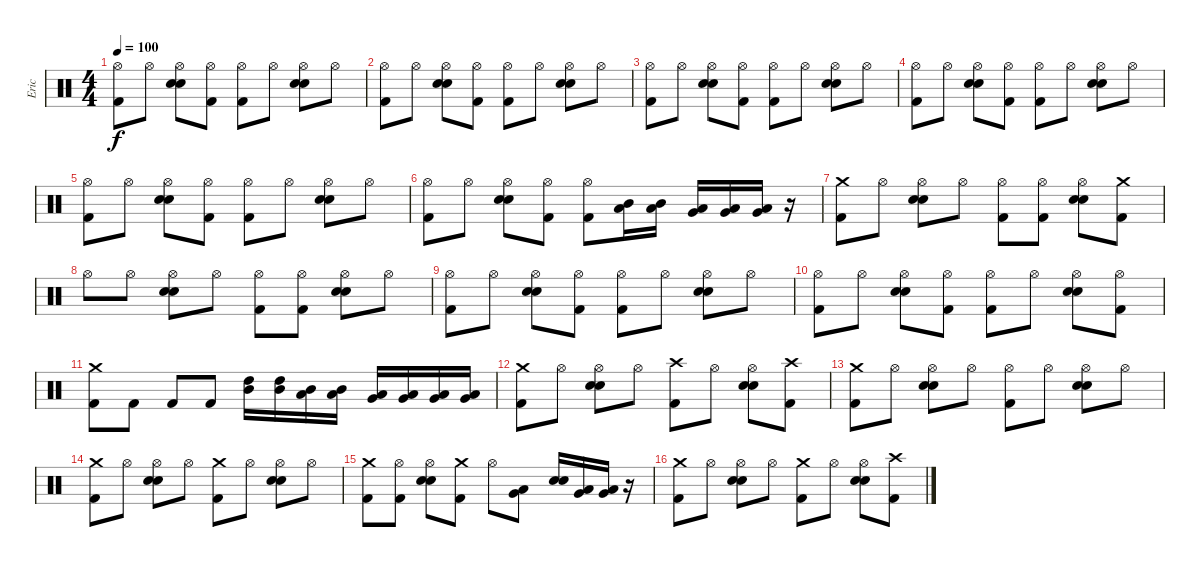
\track ("Eric" "Eric") {instrument percussion}
\staff {score}
\articulation defaults
\ts (4 4)
\tempo 100
\clef neutral
\ks c
("Hi-Hat (open)" "Kick (hit) 2").8{dy f} "Hi-Hat (open)".8 ("Hi-Hat (open)" "Electric Snare (hit)" "Snare (hit) 2").8 ("Hi-Hat (open)" "Kick (hit) 2").8 ("Hi-Hat (open)" "Kick (hit) 2").8 "Hi-Hat (open)".8 ("Hi-Hat (open)" "Electric Snare (hit)" "Snare (hit) 2").8 "Hi-Hat (open)".8 |
("Hi-Hat (open)" "Kick (hit) 2").8 "Hi-Hat (open)".8 ("Hi-Hat (open)" "Electric Snare (hit)" "Snare (hit) 2").8 ("Hi-Hat (open)" "Kick (hit) 2").8 ("Hi-Hat (open)" "Kick (hit) 2").8 "Hi-Hat (open)".8 ("Hi-Hat (open)" "Electric Snare (hit)" "Snare (hit) 2").8 "Hi-Hat (open)".8 |
("Hi-Hat (open)" "Kick (hit) 2").8 "Hi-Hat (open)".8 ("Hi-Hat (open)" "Electric Snare (hit)" "Snare (hit) 2").8 ("Hi-Hat (open)" "Kick (hit) 2").8 ("Hi-Hat (open)" "Kick (hit) 2").8 "Hi-Hat (open)".8 ("Hi-Hat (open)" "Electric Snare (hit)" "Snare (hit) 2").8 "Hi-Hat (open)".8 |
("Hi-Hat (open)" "Kick (hit) 2").8 "Hi-Hat (open)".8 ("Hi-Hat (open)" "Electric Snare (hit)" "Snare (hit) 2").8 ("Hi-Hat (open)" "Kick (hit) 2").8 ("Hi-Hat (open)" "Kick (hit) 2").8 "Hi-Hat (open)".8 ("Hi-Hat (open)" "Electric Snare (hit)" "Snare (hit) 2").8 "Hi-Hat (open)".8 |
("Hi-Hat (open)" "Kick (hit) 2").8 "Hi-Hat (open)".8 ("Hi-Hat (open)" "Electric Snare (hit)" "Snare (hit) 2").8 ("Hi-Hat (open)" "Kick (hit) 2").8 ("Hi-Hat (open)" "Kick (hit) 2").8 "Hi-Hat (open)".8 ("Hi-Hat (open)" "Electric Snare (hit)" "Snare (hit) 2").8 "Hi-Hat (open)".8 |
("Hi-Hat (open)" "Kick (hit) 2").8 "Hi-Hat (open)".8 ("Hi-Hat (open)" "Electric Snare (hit)" "Snare (hit) 2").8 ("Hi-Hat (open)" "Kick (hit) 2").8 ("Hi-Hat (open)" "Kick (hit) 2").8 ("Mid Tom (hit)" "Low Tom (hit)").16 ("Mid Tom (hit)" "Low Tom (hit)").16 ("Low Tom (hit)" "Very Low Tom (hit)").16 ("Low Tom (hit)" "Very Low Tom (hit)").16 ("Very Low Tom (hit)" "Low Floor Tom (hit)").16 r.16 |
("Crash medium (hit)" "Kick (hit) 2").8 "Hi-Hat (open)".8 ("Hi-Hat (open)" "Electric Snare (hit)" "Snare (hit) 2").8 "Hi-Hat (open)".8 ("Hi-Hat (open)" "Kick (hit) 2").8 ("Kick (hit) 2" "Hi-Hat (open)").8 ("Hi-Hat (open)" "Electric Snare (hit)" "Snare (hit) 2").8 ("Kick (hit) 2" "Crash medium (hit)").8 |
"Hi-Hat (open)".8 "Hi-Hat (open)".8 ("Hi-Hat (open)" "Electric Snare (hit)" "Snare (hit) 2").8 "Hi-Hat (open)".8 ("Hi-Hat (open)" "Kick (hit) 2").8 ("Kick (hit) 2" "Hi-Hat (open)").8 ("Hi-Hat (open)" "Electric Snare (hit)" "Snare (hit) 2").8 "Hi-Hat (open)".8 |
("Hi-Hat (open)" "Kick (hit) 2").8 "Hi-Hat (open)".8 ("Hi-Hat (open)" "Electric Snare (hit)" "Snare (hit) 2").8 ("Hi-Hat (open)" "Kick (hit) 2").8 ("Hi-Hat (open)" "Kick (hit) 2").8 "Hi-Hat (open)".8 ("Hi-Hat (open)" "Electric Snare (hit)" "Snare (hit) 2").8 "Hi-Hat (open)".8 |
("Hi-Hat (open)" "Kick (hit) 2").8 "Hi-Hat (open)".8 ("Hi-Hat (open)" "Electric Snare (hit)" "Snare (hit) 2").8 ("Hi-Hat (open)" "Kick (hit) 2").8 ("Hi-Hat (open)" "Kick (hit) 2").8 "Hi-Hat (open)".8 ("Hi-Hat (open)" "Electric Snare (hit)" "Snare (hit) 2").8 ("Kick (hit) 2" "Hi-Hat (open)").8 |
("Crash medium (hit)" "Kick (hit) 2").8 "Kick (hit) 2".8 "Kick (hit) 2".8 "Kick (hit) 2".8 ("Mid Tom (hit)" "High Tom (hit)").16 ("Mid Tom (hit)" "High Tom (hit)").16 ("Low Tom (hit)" "Mid Tom (hit)").16 ("Low Tom (hit)" "Mid Tom (hit)").16 ("Low Tom (hit)" "Very Low Tom (hit)").16 ("Low Tom (hit)" "Very Low Tom (hit)").16 ("Very Low Tom (hit)" "Low Floor Tom (hit)").16 ("Very Low Tom (hit)" "Low Floor Tom (hit)").16 |
("Crash medium (hit)" "Kick (hit) 2").8 "Hi-Hat (open)".8 ("Hi-Hat (open)" "Electric Snare (hit)" "Snare (hit) 2").8 "Hi-Hat (open)".8 ("Crash high (hit)" "Kick (hit) 2").8 "Hi-Hat (open)".8 ("Hi-Hat (open)" "Electric Snare (hit)" "Snare (hit) 2").8 ("Kick (hit) 2" "Crash high (hit)").8 |
("Crash medium (hit)" "Kick (hit) 2").8 "Hi-Hat (open)".8 ("Hi-Hat (open)" "Electric Snare (hit)" "Snare (hit) 2").8 "Hi-Hat (open)".8 ("Hi-Hat (open)" "Kick (hit) 2").8 "Hi-Hat (open)".8 ("Hi-Hat (open)" "Electric Snare (hit)" "Snare (hit) 2").8 "Hi-Hat (open)".8 |
("Crash medium (hit)" "Kick (hit) 2").8 "Hi-Hat (open)".8 ("Hi-Hat (open)" "Electric Snare (hit)" "Snare (hit) 2").8 "Hi-Hat (open)".8 ("Crash medium (hit)" "Kick (hit) 2").8 "Hi-Hat (open)".8 ("Hi-Hat (open)" "Electric Snare (hit)" "Snare (hit) 2").8 "Hi-Hat (open)".8 |
("Crash medium (hit)" "Kick (hit) 2").8 ("Kick (hit) 2" "Hi-Hat (open)").8 ("Hi-Hat (open)" "Electric Snare (hit)" "Snare (hit) 2").8 ("Crash medium (hit)" "Kick (hit) 2").8 "Hi-Hat (open)".8 ("Low Tom (hit)" "Very Low Tom (hit)").8 ("Snare (hit) 2" "Electric Snare (hit)").16 ("Very Low Tom (hit)" "Low Tom (hit)").16 ("Very Low Tom (hit)" "Low Tom (hit)").16 r.16 |
("Crash medium (hit)" "Kick (hit) 2").8 "Hi-Hat (open)".8 ("Hi-Hat (open)" "Electric Snare (hit)" "Snare (hit) 2").8 "Hi-Hat (open)".8 ("Crash medium (hit)" "Kick (hit) 2").8 "Hi-Hat (open)".8 ("Hi-Hat (open)" "Electric Snare (hit)" "Snare (hit) 2").8 ("Kick (hit) 2" "Crash high (hit)").8
